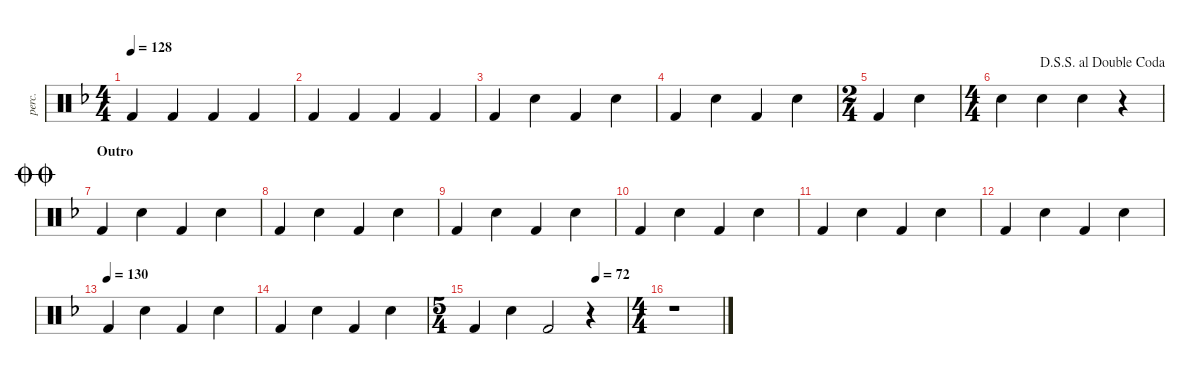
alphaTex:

\defaultSystemsLayout 2
\hideDynamics
\bracketExtendMode groupsimilarinstruments
\otherSystemsTrackNameOrientation horizontal
\track ("Guitar Percussion" "perc.") {instrument percussion}
\staff {score}
\articulation defaults
\ts (4 4)
\scale
1.04549
\tempo 128
\accidentals auto
\clef neutral
\ottava regular
\simile none
\ks dminor "Kick (hit) 2"{acc forcenatural}.4{dy mf} "Kick (hit) 2"{acc forcenatural}.4 "Kick (hit) 2"{acc forcenatural}.4 "Kick (hit) 2"{acc forcenatural}.4
|
\scale
0.954505 "Kick (hit) 2"{acc forcenatural}.4 "Kick (hit) 2"{acc forcenatural}.4 "Kick (hit) 2"{acc forcenatural}.4 "Kick (hit) 2"{acc forcenatural}.4 |
\scale
1.04549 "Kick (hit) 2"{acc forcenatural}.4 "Snare (hit) 2"{acc forcenatural}.4 "Kick (hit) 2"{acc forcenatural}.4 "Snare (hit) 2"{acc forcenatural}.4 |
\scale
0.954505 "Kick (hit) 2"{acc forcenatural}.4 "Snare (hit) 2"{acc forcenatural}.4 "Kick (hit) 2"{acc forcenatural}.4 "Snare (hit) 2"{acc forcenatural}.4 |
\ts (2 4)
\scale
1.04502 "Kick (hit) 2"{acc forcenatural}.4 "Snare (hit) 2"{acc forcenatural}.4 |
\ts (4 4)
\scale
0.954979
\jump dalsegnosegnoaldoublecoda "Snare (hit) 2"{acc forcenatural}.4 "Snare (hit) 2"{acc forcenatural}.4 "Snare (hit) 2"{acc forcenatural}.4
r.4 |
\section ("" "Outro")
\scale
1.04681
\jump doublecoda "Kick (hit) 2"{acc forcenatural}.4 "Snare (hit) 2"{acc forcenatural}.4 "Kick (hit) 2"{acc forcenatural}.4 "Snare (hit) 2"{acc forcenatural}.4
|
\scale
0.953189 "Kick (hit) 2"{acc forcenatural}.4 "Snare (hit) 2"{acc forcenatural}.4 "Kick (hit) 2"{acc forcenatural}.4 "Snare (hit) 2"{acc forcenatural}.4 |
\scale
1.04681 "Kick (hit) 2"{acc forcenatural}.4 "Snare (hit) 2"{acc forcenatural}.4 "Kick (hit) 2"{acc forcenatural}.4 "Snare (hit) 2"{acc forcenatural}.4 |
\scale
0.953189 "Kick (hit) 2"{acc forcenatural}.4 "Snare (hit) 2"{acc forcenatural}.4 "Kick (hit) 2"{acc forcenatural}.4 "Snare (hit) 2"{acc forcenatural}.4 |
\scale
1.04681 "Kick (hit) 2"{acc forcenatural}.4 "Snare (hit) 2"{acc forcenatural}.4 "Kick (hit) 2"{acc forcenatural}.4 "Snare (hit) 2"{acc forcenatural}.4 |
\scale
0.953189 "Kick (hit) 2"{acc forcenatural}.4 "Snare (hit) 2"{acc forcenatural}.4 "Kick (hit) 2"{acc forcenatural}.4 "Snare (hit) 2"{acc forcenatural}.4 |
\scale
1.04681
\tempo (130)
"Kick (hit) 2"{acc forcenatural}.4 "Snare (hit) 2"{acc forcenatural}.4 "Kick (hit) 2"{acc forcenatural}.4 "Snare (hit) 2"{acc forcenatural}.4 |
\scale
0.953189 "Kick (hit) 2"{acc forcenatural}.4 "Snare (hit) 2"{acc forcenatural}.4 "Kick (hit) 2"{acc forcenatural}.4 "Snare (hit) 2"{acc forcenatural}.4 |
\ts (5 4)
\scale
1.04944
\tempo (72 0.8)
"Kick (hit) 2"{acc forcenatural}.4 "Snare (hit) 2"{acc forcenatural}.4 "Kick (hit) 2"{acc forcenatural}.2 r.4 |
\ts (4 4)
\scale
0.950558 r.1
